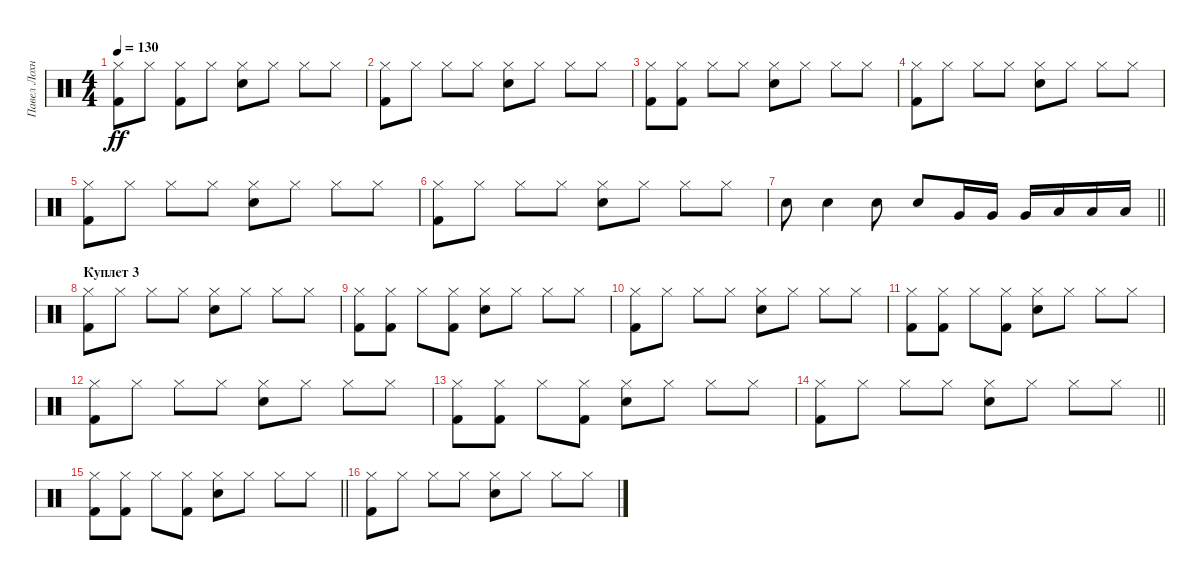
\track ("Павел Лохнин" "Павел Лохн") {instrument percussion}
\staff {score}
\articulation defaults
\ts (4 4)
\tempo 130
\clef neutral
\ks c
("Hi-Hat (closed)" "Kick (hit) 2").8{dy ff} "Hi-Hat (closed)".8 ("Hi-Hat (closed)" "Kick (hit) 2").8 "Hi-Hat (closed)".8 ("Hi-Hat (closed)" "Electric Snare (hit)").8 "Hi-Hat (closed)".8 "Hi-Hat (closed)".8 "Hi-Hat (closed)".8 |
("Hi-Hat (closed)" "Kick (hit) 2").8 "Hi-Hat (closed)".8 "Hi-Hat (closed)".8 "Hi-Hat (closed)".8 ("Hi-Hat (closed)" "Electric Snare (hit)").8 "Hi-Hat (closed)".8 "Hi-Hat (closed)".8 "Hi-Hat (closed)".8 |
("Hi-Hat (closed)" "Kick (hit) 2").8 ("Hi-Hat (closed)" "Kick (hit) 2").8 "Hi-Hat (closed)".8 "Hi-Hat (closed)".8 ("Hi-Hat (closed)" "Electric Snare (hit)").8 "Hi-Hat (closed)".8 "Hi-Hat (closed)".8 "Hi-Hat (closed)".8 |
("Hi-Hat (closed)" "Kick (hit) 2").8 "Hi-Hat (closed)".8 "Hi-Hat (closed)".8 "Hi-Hat (closed)".8 ("Hi-Hat (closed)" "Electric Snare (hit)").8 "Hi-Hat (closed)".8 "Hi-Hat (closed)".8 "Hi-Hat (closed)".8 |
("Hi-Hat (closed)" "Kick (hit) 2").8 "Hi-Hat (closed)".8 "Hi-Hat (closed)".8 "Hi-Hat (closed)".8 ("Hi-Hat (closed)" "Electric Snare (hit)").8 "Hi-Hat (closed)".8 "Hi-Hat (closed)".8 "Hi-Hat (closed)".8 |
("Hi-Hat (closed)" "Kick (hit) 2").8 "Hi-Hat (closed)".8 "Hi-Hat (closed)".8 "Hi-Hat (closed)".8 ("Hi-Hat (closed)" "Electric Snare (hit)").8 "Hi-Hat (closed)".8 "Hi-Hat (closed)".8 "Hi-Hat (closed)".8 |
\barLineRight lightlight "Electric Snare (hit)".8 "Electric Snare (hit)".4 "Electric Snare (hit)".8 "Electric Snare (hit)".8 "Very Low Tom (hit)".16 "Very Low Tom (hit)".16 "Very Low Tom (hit)".16 "Low Floor Tom (hit)".16 "Low Floor Tom (hit)".16 "Low Floor Tom (hit)".16
|
\section ("" "Куплет 3")
("Hi-Hat (closed)" "Kick (hit) 2").8 "Hi-Hat (closed)".8 "Hi-Hat (closed)".8 "Hi-Hat (closed)".8 ("Hi-Hat (closed)" "Electric Snare (hit)").8 "Hi-Hat (closed)".8 "Hi-Hat (closed)".8 "Hi-Hat (closed)".8 |
("Hi-Hat (closed)" "Kick (hit) 2").8 ("Hi-Hat (closed)" "Kick (hit) 2").8 "Hi-Hat (closed)".8 ("Hi-Hat (closed)" "Kick (hit) 2").8 ("Hi-Hat (closed)" "Electric Snare (hit)").8 "Hi-Hat (closed)".8 "Hi-Hat (closed)".8 "Hi-Hat (closed)".8 |
("Hi-Hat (closed)" "Kick (hit) 2").8 "Hi-Hat (closed)".8 "Hi-Hat (closed)".8 "Hi-Hat (closed)".8 ("Hi-Hat (closed)" "Electric Snare (hit)").8 "Hi-Hat (closed)".8 "Hi-Hat (closed)".8 "Hi-Hat (closed)".8 |
("Hi-Hat (closed)" "Kick (hit) 2").8 ("Hi-Hat (closed)" "Kick (hit) 2").8 "Hi-Hat (closed)".8 ("Hi-Hat (closed)" "Kick (hit) 2").8 ("Hi-Hat (closed)" "Electric Snare (hit)").8 "Hi-Hat (closed)".8 "Hi-Hat (closed)".8 "Hi-Hat (closed)".8 |
("Hi-Hat (closed)" "Kick (hit) 2").8 "Hi-Hat (closed)".8 "Hi-Hat (closed)".8 "Hi-Hat (closed)".8 ("Hi-Hat (closed)" "Electric Snare (hit)").8 "Hi-Hat (closed)".8 "Hi-Hat (closed)".8 "Hi-Hat (closed)".8 |
("Hi-Hat (closed)" "Kick (hit) 2").8 ("Hi-Hat (closed)" "Kick (hit) 2").8 "Hi-Hat (closed)".8 ("Hi-Hat (closed)" "Kick (hit) 2").8 ("Hi-Hat (closed)" "Electric Snare (hit)").8 "Hi-Hat (closed)".8 "Hi-Hat (closed)".8 "Hi-Hat (closed)".8 |
\barLineRight lightlight
("Hi-Hat (closed)" "Kick (hit) 2").8 "Hi-Hat (closed)".8 "Hi-Hat (closed)".8 "Hi-Hat (closed)".8 ("Hi-Hat (closed)" "Electric Snare (hit)").8 "Hi-Hat (closed)".8 "Hi-Hat (closed)".8 "Hi-Hat (closed)".8 |
\barLineRight lightlight
("Hi-Hat (closed)" "Kick (hit) 2").8 ("Hi-Hat (closed)" "Kick (hit) 2").8 "Hi-Hat (closed)".8 ("Hi-Hat (closed)" "Kick (hit) 2").8 ("Hi-Hat (closed)" "Electric Snare (hit)").8 "Hi-Hat (closed)".8 "Hi-Hat (closed)".8 "Hi-Hat (closed)".8 |
("Hi-Hat (closed)" "Kick (hit) 2").8 "Hi-Hat (closed)".8 "Hi-Hat (closed)".8 "Hi-Hat (closed)".8 ("Hi-Hat (closed)" "Electric Snare (hit)").8 "Hi-Hat (closed)".8 "Hi-Hat (closed)".8 "Hi-Hat (closed)".8
